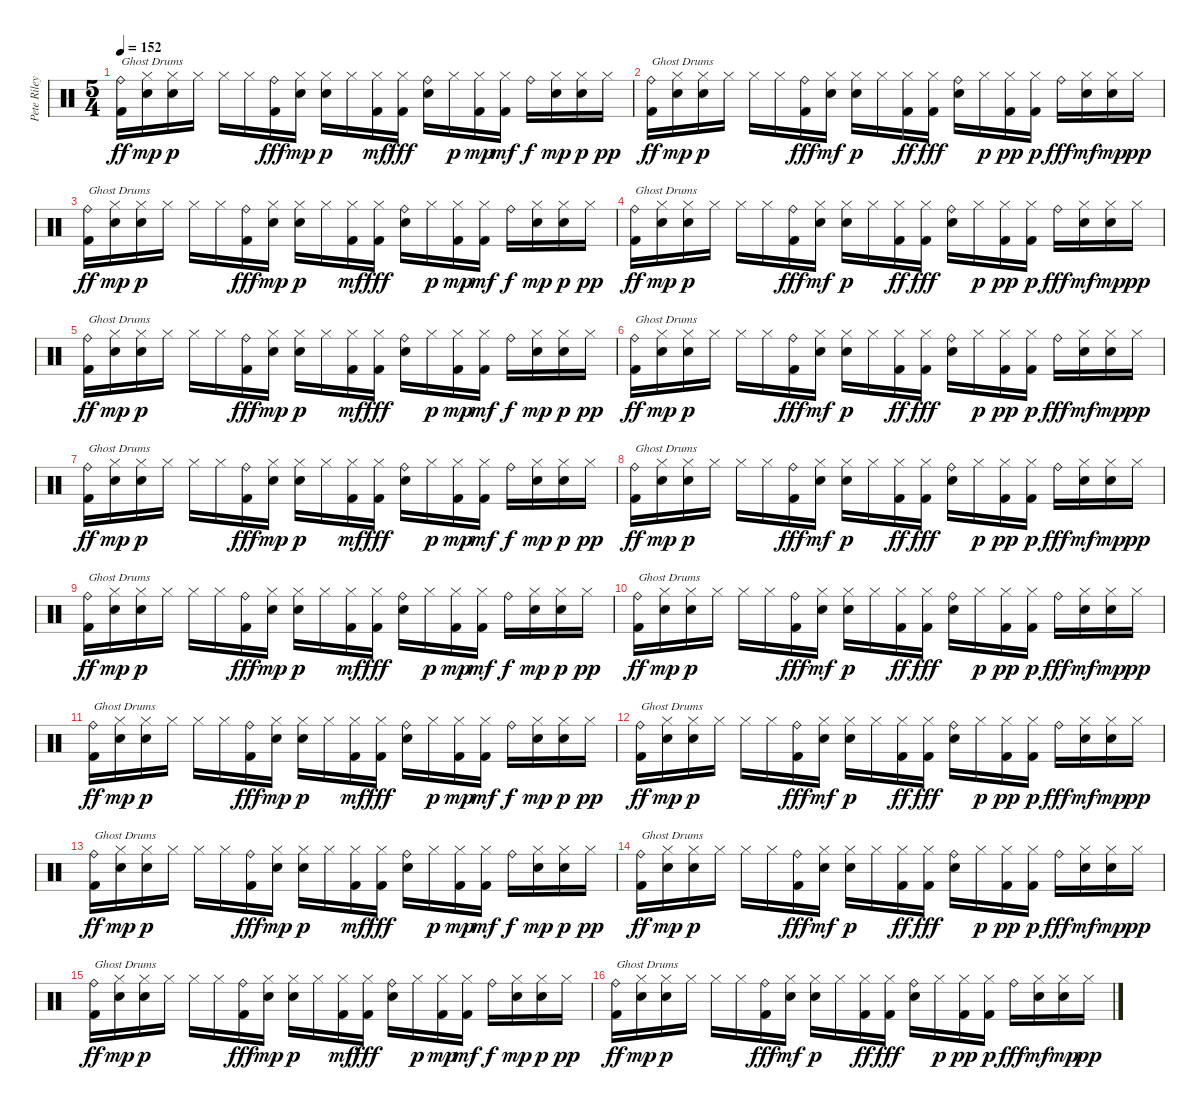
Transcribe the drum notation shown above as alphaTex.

\track ("Pete Riley" "Pete Riley") {instrument percussion}
\staff {score}
\articulation defaults
\ts (5 4)
\tempo 152
\clef neutral
\ks c
("Ride (bell)" "Kick (hit) 2").16{txt "Ghost Drums" dy ff} ("Hi-Hat (closed)" "Electric Snare (hit)").16{dy mp} ("Hi-Hat (closed)" "Electric Snare (hit)").16{dy p} "Hi-Hat (closed)".16 "Hi-Hat (closed)".16 "Hi-Hat (closed)".16 ("Ride (bell)" "Kick (hit) 2").16{dy fff} ("Hi-Hat (closed)" "Electric Snare (hit)").16{dy mp} ("Hi-Hat (closed)" "Electric Snare (hit)").16{dy p} "Hi-Hat (closed)".16 ("Hi-Hat (closed)" "Kick (hit) 2").16{dy mf} ("Hi-Hat (closed)" "Kick (hit) 2").16{dy fff} ("Ride (bell)" "Electric Snare (hit)").16 "Hi-Hat (closed)".16{dy p} ("Hi-Hat (closed)" "Kick (hit) 2").16{dy mp} ("Hi-Hat (closed)" "Kick (hit) 2").16{dy mf} "Ride (bell)".16{dy f} ("Hi-Hat (closed)" "Electric Snare (hit)").16{dy mp} ("Hi-Hat (closed)" "Electric Snare (hit)").16{dy p} "Hi-Hat (closed)".16{dy pp} |
("Ride (bell)" "Kick (hit) 2").16{txt "Ghost Drums" dy ff} ("Hi-Hat (closed)" "Electric Snare (hit)").16{dy mp} ("Hi-Hat (closed)" "Electric Snare (hit)").16{dy p} "Hi-Hat (closed)".16 "Hi-Hat (closed)".16 "Hi-Hat (closed)".16 ("Ride (bell)" "Kick (hit) 2").16{dy fff} ("Hi-Hat (closed)" "Electric Snare (hit)").16{dy mf} ("Hi-Hat (closed)" "Electric Snare (hit)").16{dy p} "Hi-Hat (closed)".16 ("Hi-Hat (closed)" "Kick (hit) 2").16{dy ff} ("Hi-Hat (closed)" "Kick (hit) 2").16{dy fff} ("Ride (bell)" "Electric Snare (hit)").16 "Hi-Hat (closed)".16{dy p} ("Hi-Hat (closed)" "Kick (hit) 2").16{dy pp} ("Hi-Hat (closed)" "Kick (hit) 2").16{dy p} "Ride (bell)".16{dy fff} ("Hi-Hat (closed)" "Electric Snare (hit)").16{dy mf} ("Hi-Hat (closed)" "Electric Snare (hit)").16{dy mp} "Hi-Hat (closed)".16{dy pp} |
("Ride (bell)" "Kick (hit) 2").16{txt "Ghost Drums" dy ff} ("Hi-Hat (closed)" "Electric Snare (hit)").16{dy mp} ("Hi-Hat (closed)" "Electric Snare (hit)").16{dy p} "Hi-Hat (closed)".16 "Hi-Hat (closed)".16 "Hi-Hat (closed)".16 ("Ride (bell)" "Kick (hit) 2").16{dy fff} ("Hi-Hat (closed)" "Electric Snare (hit)").16{dy mp} ("Hi-Hat (closed)" "Electric Snare (hit)").16{dy p} "Hi-Hat (closed)".16 ("Hi-Hat (closed)" "Kick (hit) 2").16{dy mf} ("Hi-Hat (closed)" "Kick (hit) 2").16{dy fff} ("Ride (bell)" "Electric Snare (hit)").16 "Hi-Hat (closed)".16{dy p} ("Hi-Hat (closed)" "Kick (hit) 2").16{dy mp} ("Hi-Hat (closed)" "Kick (hit) 2").16{dy mf} "Ride (bell)".16{dy f} ("Hi-Hat (closed)" "Electric Snare (hit)").16{dy mp} ("Hi-Hat (closed)" "Electric Snare (hit)").16{dy p} "Hi-Hat (closed)".16{dy pp} |
("Ride (bell)" "Kick (hit) 2").16{txt "Ghost Drums" dy ff} ("Hi-Hat (closed)" "Electric Snare (hit)").16{dy mp} ("Hi-Hat (closed)" "Electric Snare (hit)").16{dy p} "Hi-Hat (closed)".16 "Hi-Hat (closed)".16 "Hi-Hat (closed)".16 ("Ride (bell)" "Kick (hit) 2").16{dy fff} ("Hi-Hat (closed)" "Electric Snare (hit)").16{dy mf} ("Hi-Hat (closed)" "Electric Snare (hit)").16{dy p} "Hi-Hat (closed)".16 ("Hi-Hat (closed)" "Kick (hit) 2").16{dy ff} ("Hi-Hat (closed)" "Kick (hit) 2").16{dy fff} ("Ride (bell)" "Electric Snare (hit)").16 "Hi-Hat (closed)".16{dy p} ("Hi-Hat (closed)" "Kick (hit) 2").16{dy pp} ("Hi-Hat (closed)" "Kick (hit) 2").16{dy p} "Ride (bell)".16{dy fff} ("Hi-Hat (closed)" "Electric Snare (hit)").16{dy mf} ("Hi-Hat (closed)" "Electric Snare (hit)").16{dy mp} "Hi-Hat (closed)".16{dy pp} |
("Ride (bell)" "Kick (hit) 2").16{txt "Ghost Drums" dy ff} ("Hi-Hat (closed)" "Electric Snare (hit)").16{dy mp} ("Hi-Hat (closed)" "Electric Snare (hit)").16{dy p} "Hi-Hat (closed)".16 "Hi-Hat (closed)".16 "Hi-Hat (closed)".16 ("Ride (bell)" "Kick (hit) 2").16{dy fff} ("Hi-Hat (closed)" "Electric Snare (hit)").16{dy mp} ("Hi-Hat (closed)" "Electric Snare (hit)").16{dy p} "Hi-Hat (closed)".16 ("Hi-Hat (closed)" "Kick (hit) 2").16{dy mf} ("Hi-Hat (closed)" "Kick (hit) 2").16{dy fff} ("Ride (bell)" "Electric Snare (hit)").16 "Hi-Hat (closed)".16{dy p} ("Hi-Hat (closed)" "Kick (hit) 2").16{dy mp} ("Hi-Hat (closed)" "Kick (hit) 2").16{dy mf} "Ride (bell)".16{dy f} ("Hi-Hat (closed)" "Electric Snare (hit)").16{dy mp} ("Hi-Hat (closed)" "Electric Snare (hit)").16{dy p} "Hi-Hat (closed)".16{dy pp} |
("Ride (bell)" "Kick (hit) 2").16{txt "Ghost Drums" dy ff} ("Hi-Hat (closed)" "Electric Snare (hit)").16{dy mp} ("Hi-Hat (closed)" "Electric Snare (hit)").16{dy p} "Hi-Hat (closed)".16 "Hi-Hat (closed)".16 "Hi-Hat (closed)".16 ("Ride (bell)" "Kick (hit) 2").16{dy fff} ("Hi-Hat (closed)" "Electric Snare (hit)").16{dy mf} ("Hi-Hat (closed)" "Electric Snare (hit)").16{dy p} "Hi-Hat (closed)".16 ("Hi-Hat (closed)" "Kick (hit) 2").16{dy ff} ("Hi-Hat (closed)" "Kick (hit) 2").16{dy fff} ("Ride (bell)" "Electric Snare (hit)").16 "Hi-Hat (closed)".16{dy p} ("Hi-Hat (closed)" "Kick (hit) 2").16{dy pp} ("Hi-Hat (closed)" "Kick (hit) 2").16{dy p} "Ride (bell)".16{dy fff} ("Hi-Hat (closed)" "Electric Snare (hit)").16{dy mf} ("Hi-Hat (closed)" "Electric Snare (hit)").16{dy mp} "Hi-Hat (closed)".16{dy pp} |
("Ride (bell)" "Kick (hit) 2").16{txt "Ghost Drums" dy ff} ("Hi-Hat (closed)" "Electric Snare (hit)").16{dy mp} ("Hi-Hat (closed)" "Electric Snare (hit)").16{dy p} "Hi-Hat (closed)".16 "Hi-Hat (closed)".16 "Hi-Hat (closed)".16 ("Ride (bell)" "Kick (hit) 2").16{dy fff} ("Hi-Hat (closed)" "Electric Snare (hit)").16{dy mp} ("Hi-Hat (closed)" "Electric Snare (hit)").16{dy p} "Hi-Hat (closed)".16 ("Hi-Hat (closed)" "Kick (hit) 2").16{dy mf} ("Hi-Hat (closed)" "Kick (hit) 2").16{dy fff} ("Ride (bell)" "Electric Snare (hit)").16 "Hi-Hat (closed)".16{dy p} ("Hi-Hat (closed)" "Kick (hit) 2").16{dy mp} ("Hi-Hat (closed)" "Kick (hit) 2").16{dy mf} "Ride (bell)".16{dy f} ("Hi-Hat (closed)" "Electric Snare (hit)").16{dy mp} ("Hi-Hat (closed)" "Electric Snare (hit)").16{dy p} "Hi-Hat (closed)".16{dy pp} |
("Ride (bell)" "Kick (hit) 2").16{txt "Ghost Drums" dy ff} ("Hi-Hat (closed)" "Electric Snare (hit)").16{dy mp} ("Hi-Hat (closed)" "Electric Snare (hit)").16{dy p} "Hi-Hat (closed)".16 "Hi-Hat (closed)".16 "Hi-Hat (closed)".16 ("Ride (bell)" "Kick (hit) 2").16{dy fff} ("Hi-Hat (closed)" "Electric Snare (hit)").16{dy mf} ("Hi-Hat (closed)" "Electric Snare (hit)").16{dy p} "Hi-Hat (closed)".16 ("Hi-Hat (closed)" "Kick (hit) 2").16{dy ff} ("Hi-Hat (closed)" "Kick (hit) 2").16{dy fff} ("Ride (bell)" "Electric Snare (hit)").16 "Hi-Hat (closed)".16{dy p} ("Hi-Hat (closed)" "Kick (hit) 2").16{dy pp} ("Hi-Hat (closed)" "Kick (hit) 2").16{dy p} "Ride (bell)".16{dy fff} ("Hi-Hat (closed)" "Electric Snare (hit)").16{dy mf} ("Hi-Hat (closed)" "Electric Snare (hit)").16{dy mp} "Hi-Hat (closed)".16{dy pp} |
("Ride (bell)" "Kick (hit) 2").16{txt "Ghost Drums" dy ff} ("Hi-Hat (closed)" "Electric Snare (hit)").16{dy mp} ("Hi-Hat (closed)" "Electric Snare (hit)").16{dy p} "Hi-Hat (closed)".16 "Hi-Hat (closed)".16 "Hi-Hat (closed)".16 ("Ride (bell)" "Kick (hit) 2").16{dy fff} ("Hi-Hat (closed)" "Electric Snare (hit)").16{dy mp} ("Hi-Hat (closed)" "Electric Snare (hit)").16{dy p} "Hi-Hat (closed)".16 ("Hi-Hat (closed)" "Kick (hit) 2").16{dy mf} ("Hi-Hat (closed)" "Kick (hit) 2").16{dy fff} ("Ride (bell)" "Electric Snare (hit)").16 "Hi-Hat (closed)".16{dy p} ("Hi-Hat (closed)" "Kick (hit) 2").16{dy mp} ("Hi-Hat (closed)" "Kick (hit) 2").16{dy mf} "Ride (bell)".16{dy f} ("Hi-Hat (closed)" "Electric Snare (hit)").16{dy mp} ("Hi-Hat (closed)" "Electric Snare (hit)").16{dy p} "Hi-Hat (closed)".16{dy pp} |
("Ride (bell)" "Kick (hit) 2").16{txt "Ghost Drums" dy ff} ("Hi-Hat (closed)" "Electric Snare (hit)").16{dy mp} ("Hi-Hat (closed)" "Electric Snare (hit)").16{dy p} "Hi-Hat (closed)".16 "Hi-Hat (closed)".16 "Hi-Hat (closed)".16 ("Ride (bell)" "Kick (hit) 2").16{dy fff} ("Hi-Hat (closed)" "Electric Snare (hit)").16{dy mf} ("Hi-Hat (closed)" "Electric Snare (hit)").16{dy p} "Hi-Hat (closed)".16 ("Hi-Hat (closed)" "Kick (hit) 2").16{dy ff} ("Hi-Hat (closed)" "Kick (hit) 2").16{dy fff} ("Ride (bell)" "Electric Snare (hit)").16 "Hi-Hat (closed)".16{dy p} ("Hi-Hat (closed)" "Kick (hit) 2").16{dy pp} ("Hi-Hat (closed)" "Kick (hit) 2").16{dy p} "Ride (bell)".16{dy fff} ("Hi-Hat (closed)" "Electric Snare (hit)").16{dy mf} ("Hi-Hat (closed)" "Electric Snare (hit)").16{dy mp} "Hi-Hat (closed)".16{dy pp} |
("Ride (bell)" "Kick (hit) 2").16{txt "Ghost Drums" dy ff} ("Hi-Hat (closed)" "Electric Snare (hit)").16{dy mp} ("Hi-Hat (closed)" "Electric Snare (hit)").16{dy p} "Hi-Hat (closed)".16 "Hi-Hat (closed)".16 "Hi-Hat (closed)".16 ("Ride (bell)" "Kick (hit) 2").16{dy fff} ("Hi-Hat (closed)" "Electric Snare (hit)").16{dy mp} ("Hi-Hat (closed)" "Electric Snare (hit)").16{dy p} "Hi-Hat (closed)".16 ("Hi-Hat (closed)" "Kick (hit) 2").16{dy mf} ("Hi-Hat (closed)" "Kick (hit) 2").16{dy fff} ("Ride (bell)" "Electric Snare (hit)").16 "Hi-Hat (closed)".16{dy p} ("Hi-Hat (closed)" "Kick (hit) 2").16{dy mp} ("Hi-Hat (closed)" "Kick (hit) 2").16{dy mf} "Ride (bell)".16{dy f} ("Hi-Hat (closed)" "Electric Snare (hit)").16{dy mp} ("Hi-Hat (closed)" "Electric Snare (hit)").16{dy p} "Hi-Hat (closed)".16{dy pp} |
("Ride (bell)" "Kick (hit) 2").16{txt "Ghost Drums" dy ff} ("Hi-Hat (closed)" "Electric Snare (hit)").16{dy mp} ("Hi-Hat (closed)" "Electric Snare (hit)").16{dy p} "Hi-Hat (closed)".16 "Hi-Hat (closed)".16 "Hi-Hat (closed)".16 ("Ride (bell)" "Kick (hit) 2").16{dy fff} ("Hi-Hat (closed)" "Electric Snare (hit)").16{dy mf} ("Hi-Hat (closed)" "Electric Snare (hit)").16{dy p} "Hi-Hat (closed)".16 ("Hi-Hat (closed)" "Kick (hit) 2").16{dy ff} ("Hi-Hat (closed)" "Kick (hit) 2").16{dy fff} ("Ride (bell)" "Electric Snare (hit)").16 "Hi-Hat (closed)".16{dy p} ("Hi-Hat (closed)" "Kick (hit) 2").16{dy pp} ("Hi-Hat (closed)" "Kick (hit) 2").16{dy p} "Ride (bell)".16{dy fff} ("Hi-Hat (closed)" "Electric Snare (hit)").16{dy mf} ("Hi-Hat (closed)" "Electric Snare (hit)").16{dy mp} "Hi-Hat (closed)".16{dy pp} |
("Ride (bell)" "Kick (hit) 2").16{txt "Ghost Drums" dy ff} ("Hi-Hat (closed)" "Electric Snare (hit)").16{dy mp} ("Hi-Hat (closed)" "Electric Snare (hit)").16{dy p} "Hi-Hat (closed)".16 "Hi-Hat (closed)".16 "Hi-Hat (closed)".16 ("Ride (bell)" "Kick (hit) 2").16{dy fff} ("Hi-Hat (closed)" "Electric Snare (hit)").16{dy mp} ("Hi-Hat (closed)" "Electric Snare (hit)").16{dy p} "Hi-Hat (closed)".16 ("Hi-Hat (closed)" "Kick (hit) 2").16{dy mf} ("Hi-Hat (closed)" "Kick (hit) 2").16{dy fff} ("Ride (bell)" "Electric Snare (hit)").16 "Hi-Hat (closed)".16{dy p} ("Hi-Hat (closed)" "Kick (hit) 2").16{dy mp} ("Hi-Hat (closed)" "Kick (hit) 2").16{dy mf} "Ride (bell)".16{dy f} ("Hi-Hat (closed)" "Electric Snare (hit)").16{dy mp} ("Hi-Hat (closed)" "Electric Snare (hit)").16{dy p} "Hi-Hat (closed)".16{dy pp} |
("Ride (bell)" "Kick (hit) 2").16{txt "Ghost Drums" dy ff} ("Hi-Hat (closed)" "Electric Snare (hit)").16{dy mp} ("Hi-Hat (closed)" "Electric Snare (hit)").16{dy p} "Hi-Hat (closed)".16 "Hi-Hat (closed)".16 "Hi-Hat (closed)".16 ("Ride (bell)" "Kick (hit) 2").16{dy fff} ("Hi-Hat (closed)" "Electric Snare (hit)").16{dy mf} ("Hi-Hat (closed)" "Electric Snare (hit)").16{dy p} "Hi-Hat (closed)".16 ("Hi-Hat (closed)" "Kick (hit) 2").16{dy ff} ("Hi-Hat (closed)" "Kick (hit) 2").16{dy fff} ("Ride (bell)" "Electric Snare (hit)").16 "Hi-Hat (closed)".16{dy p} ("Hi-Hat (closed)" "Kick (hit) 2").16{dy pp} ("Hi-Hat (closed)" "Kick (hit) 2").16{dy p} "Ride (bell)".16{dy fff} ("Hi-Hat (closed)" "Electric Snare (hit)").16{dy mf} ("Hi-Hat (closed)" "Electric Snare (hit)").16{dy mp} "Hi-Hat (closed)".16{dy pp} |
("Ride (bell)" "Kick (hit) 2").16{txt "Ghost Drums" dy ff} ("Hi-Hat (closed)" "Electric Snare (hit)").16{dy mp} ("Hi-Hat (closed)" "Electric Snare (hit)").16{dy p} "Hi-Hat (closed)".16 "Hi-Hat (closed)".16 "Hi-Hat (closed)".16 ("Ride (bell)" "Kick (hit) 2").16{dy fff} ("Hi-Hat (closed)" "Electric Snare (hit)").16{dy mp} ("Hi-Hat (closed)" "Electric Snare (hit)").16{dy p} "Hi-Hat (closed)".16 ("Hi-Hat (closed)" "Kick (hit) 2").16{dy mf} ("Hi-Hat (closed)" "Kick (hit) 2").16{dy fff} ("Ride (bell)" "Electric Snare (hit)").16 "Hi-Hat (closed)".16{dy p} ("Hi-Hat (closed)" "Kick (hit) 2").16{dy mp} ("Hi-Hat (closed)" "Kick (hit) 2").16{dy mf} "Ride (bell)".16{dy f} ("Hi-Hat (closed)" "Electric Snare (hit)").16{dy mp} ("Hi-Hat (closed)" "Electric Snare (hit)").16{dy p} "Hi-Hat (closed)".16{dy pp} |
("Ride (bell)" "Kick (hit) 2").16{txt "Ghost Drums" dy ff} ("Hi-Hat (closed)" "Electric Snare (hit)").16{dy mp} ("Hi-Hat (closed)" "Electric Snare (hit)").16{dy p} "Hi-Hat (closed)".16 "Hi-Hat (closed)".16 "Hi-Hat (closed)".16 ("Ride (bell)" "Kick (hit) 2").16{dy fff} ("Hi-Hat (closed)" "Electric Snare (hit)").16{dy mf} ("Hi-Hat (closed)" "Electric Snare (hit)").16{dy p} "Hi-Hat (closed)".16 ("Hi-Hat (closed)" "Kick (hit) 2").16{dy ff} ("Hi-Hat (closed)" "Kick (hit) 2").16{dy fff} ("Ride (bell)" "Electric Snare (hit)").16 "Hi-Hat (closed)".16{dy p} ("Hi-Hat (closed)" "Kick (hit) 2").16{dy pp} ("Hi-Hat (closed)" "Kick (hit) 2").16{dy p} "Ride (bell)".16{dy fff} ("Hi-Hat (closed)" "Electric Snare (hit)").16{dy mf} ("Hi-Hat (closed)" "Electric Snare (hit)").16{dy mp} "Hi-Hat (closed)".16{dy pp}
